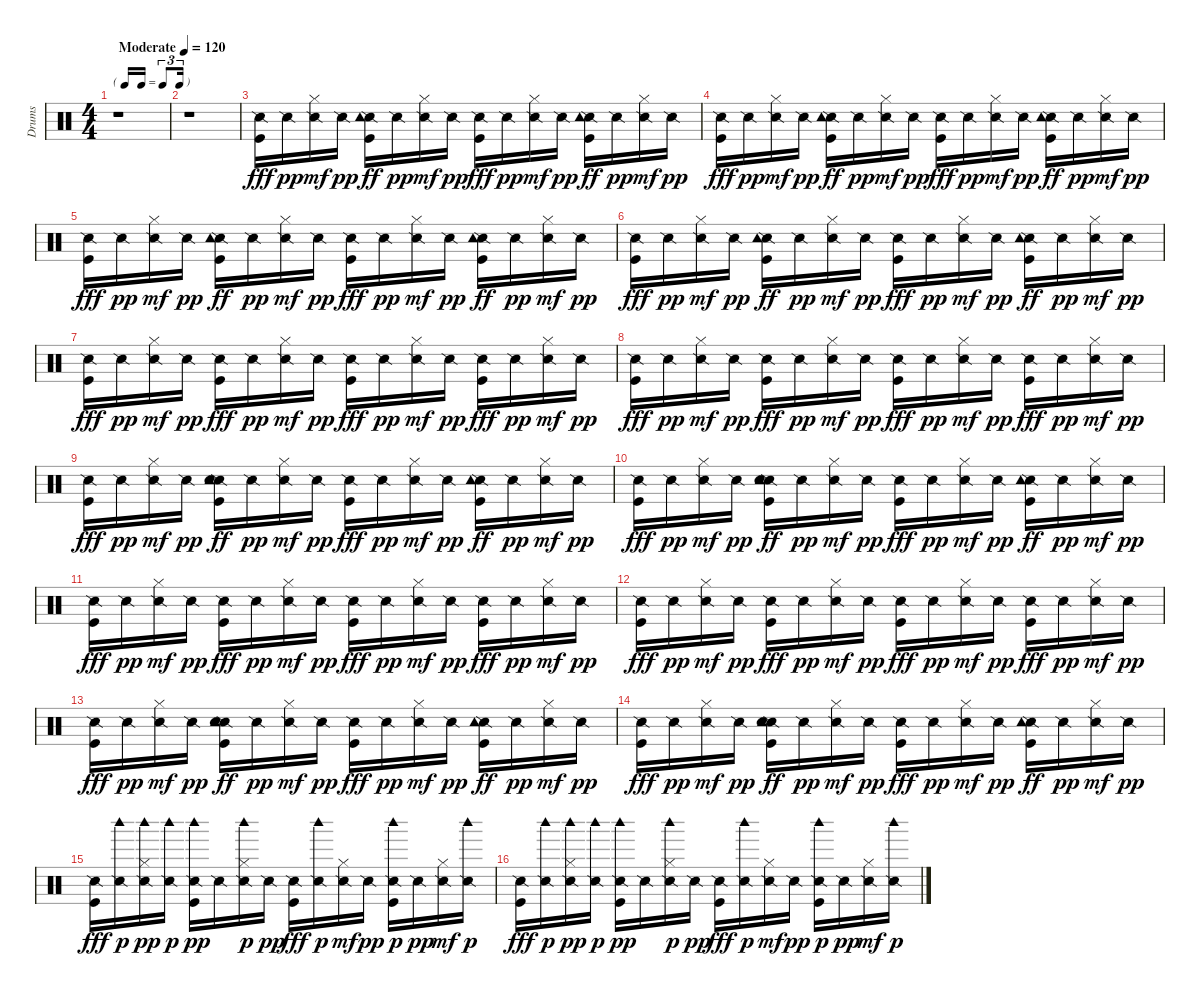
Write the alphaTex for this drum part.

\track ("Drums" "Drums") {instrument percussion}
\staff {score}
\articulation defaults
\ts (4 4)
\tf triplet16th
\tempo (120 "Moderate")
\clef neutral
\ks c
r.1{dy fff} |
r.1 |
("Snare (side stick) 2" "Kick (hit)").16 "Snare (side stick) 2".16{dy pp} ("Snare (side stick) 2" "Hi-Hat (closed)").16{dy mf} "Snare (side stick) 2".16{dy pp} ("Snare (side stick) 2" "Kick (hit)" "Tambourine (hit)").16{dy ff} "Snare (side stick) 2".16{dy pp} ("Snare (side stick) 2" "Hi-Hat (closed)").16{dy mf} "Snare (side stick) 2".16{dy pp} ("Snare (side stick) 2" "Kick (hit)").16{dy fff} "Snare (side stick) 2".16{dy pp} ("Snare (side stick) 2" "Hi-Hat (closed)").16{dy mf} "Snare (side stick) 2".16{dy pp} ("Snare (side stick) 2" "Kick (hit)" "Tambourine (hit)").16{dy ff} "Snare (side stick) 2".16{dy pp} ("Snare (side stick) 2" "Hi-Hat (closed)").16{dy mf} "Snare (side stick) 2".16{dy pp} |
("Snare (side stick) 2" "Kick (hit)").16{dy fff} "Snare (side stick) 2".16{dy pp} ("Snare (side stick) 2" "Hi-Hat (closed)").16{dy mf} "Snare (side stick) 2".16{dy pp} ("Snare (side stick) 2" "Kick (hit)" "Tambourine (hit)").16{dy ff} "Snare (side stick) 2".16{dy pp} ("Snare (side stick) 2" "Hi-Hat (closed)").16{dy mf} "Snare (side stick) 2".16{dy pp} ("Snare (side stick) 2" "Kick (hit)").16{dy fff} "Snare (side stick) 2".16{dy pp} ("Snare (side stick) 2" "Hi-Hat (closed)").16{dy mf} "Snare (side stick) 2".16{dy pp} ("Snare (side stick) 2" "Kick (hit)" "Tambourine (hit)").16{dy ff} "Snare (side stick) 2".16{dy pp} ("Snare (side stick) 2" "Hi-Hat (closed)").16{dy mf} "Snare (side stick) 2".16{dy pp} |
("Snare (side stick) 2" "Kick (hit)").16{dy fff} "Snare (side stick) 2".16{dy pp} ("Snare (side stick) 2" "Hi-Hat (closed)").16{dy mf} "Snare (side stick) 2".16{dy pp} ("Snare (side stick) 2" "Kick (hit)" "Tambourine (hit)").16{dy ff} "Snare (side stick) 2".16{dy pp} ("Snare (side stick) 2" "Hi-Hat (closed)").16{dy mf} "Snare (side stick) 2".16{dy pp} ("Snare (side stick) 2" "Kick (hit)").16{dy fff} "Snare (side stick) 2".16{dy pp} ("Snare (side stick) 2" "Hi-Hat (closed)").16{dy mf} "Snare (side stick) 2".16{dy pp} ("Snare (side stick) 2" "Kick (hit)" "Tambourine (hit)").16{dy ff} "Snare (side stick) 2".16{dy pp} ("Snare (side stick) 2" "Hi-Hat (closed)").16{dy mf} "Snare (side stick) 2".16{dy pp} |
("Snare (side stick) 2" "Kick (hit)").16{dy fff} "Snare (side stick) 2".16{dy pp} ("Snare (side stick) 2" "Hi-Hat (closed)").16{dy mf} "Snare (side stick) 2".16{dy pp} ("Snare (side stick) 2" "Kick (hit)" "Tambourine (hit)").16{dy ff} "Snare (side stick) 2".16{dy pp} ("Snare (side stick) 2" "Hi-Hat (closed)").16{dy mf} "Snare (side stick) 2".16{dy pp} ("Snare (side stick) 2" "Kick (hit)").16{dy fff} "Snare (side stick) 2".16{dy pp} ("Snare (side stick) 2" "Hi-Hat (closed)").16{dy mf} "Snare (side stick) 2".16{dy pp} ("Snare (side stick) 2" "Kick (hit)" "Tambourine (hit)").16{dy ff} "Snare (side stick) 2".16{dy pp} ("Snare (side stick) 2" "Hi-Hat (closed)").16{dy mf} "Snare (side stick) 2".16{dy pp} |
("Snare (side stick) 2" "Kick (hit)").16{dy fff} "Snare (side stick) 2".16{dy pp} ("Snare (side stick) 2" "Hi-Hat (closed)").16{dy mf} "Snare (side stick) 2".16{dy pp} ("Snare (side stick) 2" "Kick (hit)").16{dy fff} "Snare (side stick) 2".16{dy pp} ("Snare (side stick) 2" "Hi-Hat (closed)").16{dy mf} "Snare (side stick) 2".16{dy pp} ("Snare (side stick) 2" "Kick (hit)").16{dy fff} "Snare (side stick) 2".16{dy pp} ("Snare (side stick) 2" "Hi-Hat (closed)").16{dy mf} "Snare (side stick) 2".16{dy pp} ("Snare (side stick) 2" "Kick (hit)").16{dy fff} "Snare (side stick) 2".16{dy pp} ("Snare (side stick) 2" "Hi-Hat (closed)").16{dy mf} "Snare (side stick) 2".16{dy pp} |
("Snare (side stick) 2" "Kick (hit)").16{dy fff} "Snare (side stick) 2".16{dy pp} ("Snare (side stick) 2" "Hi-Hat (closed)").16{dy mf} "Snare (side stick) 2".16{dy pp} ("Snare (side stick) 2" "Kick (hit)").16{dy fff} "Snare (side stick) 2".16{dy pp} ("Snare (side stick) 2" "Hi-Hat (closed)").16{dy mf} "Snare (side stick) 2".16{dy pp} ("Snare (side stick) 2" "Kick (hit)").16{dy fff} "Snare (side stick) 2".16{dy pp} ("Snare (side stick) 2" "Hi-Hat (closed)").16{dy mf} "Snare (side stick) 2".16{dy pp} ("Snare (side stick) 2" "Kick (hit)").16{dy fff} "Snare (side stick) 2".16{dy pp} ("Snare (side stick) 2" "Hi-Hat (closed)").16{dy mf} "Snare (side stick) 2".16{dy pp} |
("Snare (side stick) 2" "Kick (hit)").16{dy fff} "Snare (side stick) 2".16{dy pp} ("Snare (side stick) 2" "Hi-Hat (closed)").16{dy mf} "Snare (side stick) 2".16{dy pp} ("Snare (side stick) 2" "Kick (hit)" "Hand Clap (hit)" "Tambourine (hit)").16{dy ff} "Snare (side stick) 2".16{dy pp} ("Snare (side stick) 2" "Hi-Hat (closed)").16{dy mf} "Snare (side stick) 2".16{dy pp} ("Snare (side stick) 2" "Kick (hit)").16{dy fff} "Snare (side stick) 2".16{dy pp} ("Snare (side stick) 2" "Hi-Hat (closed)").16{dy mf} "Snare (side stick) 2".16{dy pp} ("Snare (side stick) 2" "Kick (hit)" "Tambourine (hit)").16{dy ff} "Snare (side stick) 2".16{dy pp} ("Snare (side stick) 2" "Hi-Hat (closed)").16{dy mf} "Snare (side stick) 2".16{dy pp} |
("Snare (side stick) 2" "Kick (hit)").16{dy fff} "Snare (side stick) 2".16{dy pp} ("Snare (side stick) 2" "Hi-Hat (closed)").16{dy mf} "Snare (side stick) 2".16{dy pp} ("Snare (side stick) 2" "Kick (hit)" "Hand Clap (hit)" "Tambourine (hit)").16{dy ff} "Snare (side stick) 2".16{dy pp} ("Snare (side stick) 2" "Hi-Hat (closed)").16{dy mf} "Snare (side stick) 2".16{dy pp} ("Snare (side stick) 2" "Kick (hit)").16{dy fff} "Snare (side stick) 2".16{dy pp} ("Snare (side stick) 2" "Hi-Hat (closed)").16{dy mf} "Snare (side stick) 2".16{dy pp} ("Snare (side stick) 2" "Kick (hit)" "Tambourine (hit)").16{dy ff} "Snare (side stick) 2".16{dy pp} ("Snare (side stick) 2" "Hi-Hat (closed)").16{dy mf} "Snare (side stick) 2".16{dy pp} |
("Snare (side stick) 2" "Kick (hit)").16{dy fff} "Snare (side stick) 2".16{dy pp} ("Snare (side stick) 2" "Hi-Hat (closed)").16{dy mf} "Snare (side stick) 2".16{dy pp} ("Snare (side stick) 2" "Kick (hit)").16{dy fff} "Snare (side stick) 2".16{dy pp} ("Snare (side stick) 2" "Hi-Hat (closed)").16{dy mf} "Snare (side stick) 2".16{dy pp} ("Snare (side stick) 2" "Kick (hit)").16{dy fff} "Snare (side stick) 2".16{dy pp} ("Snare (side stick) 2" "Hi-Hat (closed)").16{dy mf} "Snare (side stick) 2".16{dy pp} ("Snare (side stick) 2" "Kick (hit)").16{dy fff} "Snare (side stick) 2".16{dy pp} ("Snare (side stick) 2" "Hi-Hat (closed)").16{dy mf} "Snare (side stick) 2".16{dy pp} |
("Snare (side stick) 2" "Kick (hit)").16{dy fff} "Snare (side stick) 2".16{dy pp} ("Snare (side stick) 2" "Hi-Hat (closed)").16{dy mf} "Snare (side stick) 2".16{dy pp} ("Snare (side stick) 2" "Kick (hit)").16{dy fff} "Snare (side stick) 2".16{dy pp} ("Snare (side stick) 2" "Hi-Hat (closed)").16{dy mf} "Snare (side stick) 2".16{dy pp} ("Snare (side stick) 2" "Kick (hit)").16{dy fff} "Snare (side stick) 2".16{dy pp} ("Snare (side stick) 2" "Hi-Hat (closed)").16{dy mf} "Snare (side stick) 2".16{dy pp} ("Snare (side stick) 2" "Kick (hit)").16{dy fff} "Snare (side stick) 2".16{dy pp} ("Snare (side stick) 2" "Hi-Hat (closed)").16{dy mf} "Snare (side stick) 2".16{dy pp} |
("Snare (side stick) 2" "Kick (hit)").16{dy fff} "Snare (side stick) 2".16{dy pp} ("Snare (side stick) 2" "Hi-Hat (closed)").16{dy mf} "Snare (side stick) 2".16{dy pp} ("Snare (side stick) 2" "Kick (hit)" "Hand Clap (hit)" "Tambourine (hit)").16{dy ff} "Snare (side stick) 2".16{dy pp} ("Snare (side stick) 2" "Hi-Hat (closed)").16{dy mf} "Snare (side stick) 2".16{dy pp} ("Snare (side stick) 2" "Kick (hit)").16{dy fff} "Snare (side stick) 2".16{dy pp} ("Snare (side stick) 2" "Hi-Hat (closed)").16{dy mf} "Snare (side stick) 2".16{dy pp} ("Snare (side stick) 2" "Kick (hit)" "Tambourine (hit)").16{dy ff} "Snare (side stick) 2".16{dy pp} ("Snare (side stick) 2" "Hi-Hat (closed)").16{dy mf} "Snare (side stick) 2".16{dy pp} |
("Snare (side stick) 2" "Kick (hit)").16{dy fff} "Snare (side stick) 2".16{dy pp} ("Snare (side stick) 2" "Hi-Hat (closed)").16{dy mf} "Snare (side stick) 2".16{dy pp} ("Snare (side stick) 2" "Kick (hit)" "Hand Clap (hit)" "Tambourine (hit)").16{dy ff} "Snare (side stick) 2".16{dy pp} ("Snare (side stick) 2" "Hi-Hat (closed)").16{dy mf} "Snare (side stick) 2".16{dy pp} ("Snare (side stick) 2" "Kick (hit)").16{dy fff} "Snare (side stick) 2".16{dy pp} ("Snare (side stick) 2" "Hi-Hat (closed)").16{dy mf} "Snare (side stick) 2".16{dy pp} ("Snare (side stick) 2" "Kick (hit)" "Tambourine (hit)").16{dy ff} "Snare (side stick) 2".16{dy pp} ("Snare (side stick) 2" "Hi-Hat (closed)").16{dy mf} "Snare (side stick) 2".16{dy pp} |
("Snare (side stick) 2" "Kick (hit)").16{dy fff} ("Snare (side stick) 2" "Woodblock high (hit)").16{dy p} ("Snare (side stick) 2" "Hi-Hat (closed)" "Woodblock high (hit)").16{dy pp} ("Snare (side stick) 2" "Woodblock high (hit)").16{dy p} ("Snare (side stick) 2" "Kick (hit)" "Woodblock high (hit)").16{dy pp} "Snare (side stick) 2".16 ("Snare (side stick) 2" "Hi-Hat (closed)" "Woodblock high (hit)").16{dy p} "Snare (side stick) 2".16{dy pp} ("Snare (side stick) 2" "Kick (hit)").16{dy fff} ("Snare (side stick) 2" "Woodblock high (hit)").16{dy p} ("Snare (side stick) 2" "Hi-Hat (closed)").16{dy mf} "Snare (side stick) 2".16{dy pp} ("Snare (side stick) 2" "Kick (hit)" "Woodblock high (hit)").16{dy p} "Snare (side stick) 2".16{dy pp} ("Snare (side stick) 2" "Hi-Hat (closed)").16{dy mf} ("Snare (side stick) 2" "Woodblock high (hit)").16{dy p} |
("Snare (side stick) 2" "Kick (hit)").16{dy fff} ("Snare (side stick) 2" "Woodblock high (hit)").16{dy p} ("Snare (side stick) 2" "Hi-Hat (closed)" "Woodblock high (hit)").16{dy pp} ("Snare (side stick) 2" "Woodblock high (hit)").16{dy p} ("Snare (side stick) 2" "Kick (hit)" "Woodblock high (hit)").16{dy pp} "Snare (side stick) 2".16 ("Snare (side stick) 2" "Hi-Hat (closed)" "Woodblock high (hit)").16{dy p} "Snare (side stick) 2".16{dy pp} ("Snare (side stick) 2" "Kick (hit)").16{dy fff} ("Snare (side stick) 2" "Woodblock high (hit)").16{dy p} ("Snare (side stick) 2" "Hi-Hat (closed)").16{dy mf} "Snare (side stick) 2".16{dy pp} ("Snare (side stick) 2" "Kick (hit)" "Woodblock high (hit)").16{dy p} "Snare (side stick) 2".16{dy pp} ("Snare (side stick) 2" "Hi-Hat (closed)").16{dy mf} ("Snare (side stick) 2" "Woodblock high (hit)").16{dy p}
